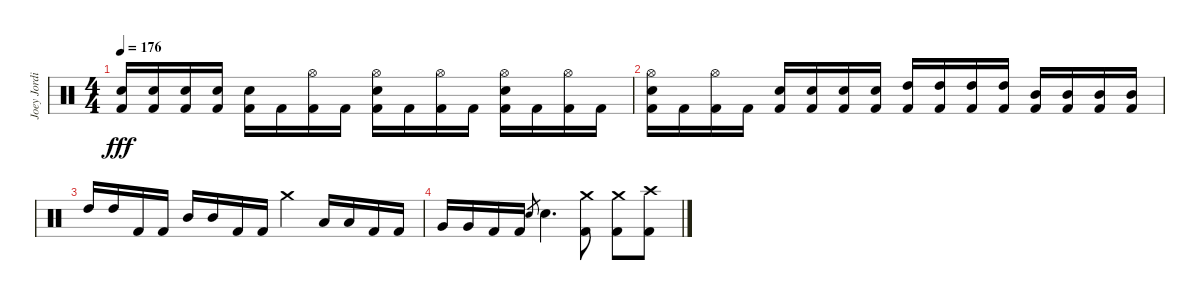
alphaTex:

\track ("Joey Jordison" "Joey Jordi") {instrument percussion}
\staff {score}
\articulation defaults
\ts (4 4)
\tempo 176
\clef neutral
\ks c
("Electric Snare (hit)" "Kick (hit) 2").16{dy fff} ("Electric Snare (hit)" "Kick (hit) 2").16 ("Electric Snare (hit)" "Kick (hit) 2").16 ("Electric Snare (hit)" "Kick (hit) 2").16 ("Electric Snare (hit)" "Kick (hit) 2").16 "Kick (hit) 2".16 ("Hi-Hat (open)" "Kick (hit) 2").16 "Kick (hit) 2".16 ("Hi-Hat (open)" "Electric Snare (hit)" "Kick (hit) 2").16 "Kick (hit) 2".16 ("Hi-Hat (open)" "Kick (hit) 2").16 "Kick (hit) 2".16 ("Hi-Hat (open)" "Electric Snare (hit)" "Kick (hit) 2").16 "Kick (hit) 2".16 ("Hi-Hat (open)" "Kick (hit) 2").16 "Kick (hit) 2".16 |
("Hi-Hat (open)" "Electric Snare (hit)" "Kick (hit) 2").16 "Kick (hit) 2".16 ("Hi-Hat (open)" "Kick (hit) 2").16 "Kick (hit) 2".16 ("Electric Snare (hit)" "Kick (hit) 2").16 ("Electric Snare (hit)" "Kick (hit) 2").16 ("Electric Snare (hit)" "Kick (hit) 2").16 ("Electric Snare (hit)" "Kick (hit) 2").16 ("High Tom (hit)" "Kick (hit) 2").16 ("High Tom (hit)" "Kick (hit) 2").16 ("High Tom (hit)" "Kick (hit) 2").16 ("High Tom (hit)" "Kick (hit) 2").16 ("Mid Tom (hit)" "Kick (hit) 2").16 ("Mid Tom (hit)" "Kick (hit) 2").16 ("Mid Tom (hit)" "Kick (hit) 2").16 ("Mid Tom (hit)" "Kick (hit) 2").16 |
"High Tom (hit)".16 "High Tom (hit)".16 "Kick (hit) 2".16 "Kick (hit) 2".16 "Mid Tom (hit)".16 "Mid Tom (hit)".16 "Kick (hit) 2".16 "Kick (hit) 2".16 "Crash medium (hit)".4 "Low Tom (hit)".16 "Low Tom (hit)".16 "Kick (hit) 2".16 "Kick (hit) 2".16 |
"Very Low Tom (hit)".16 "Very Low Tom (hit)".16 "Kick (hit) 2".16 "Kick (hit) 2".16 "Electric Snare (hit)".8{gr} "Electric Snare (hit)".4{d} ("Crash medium (hit)" "Kick (hit) 2").8 ("Crash medium (hit)" "Kick (hit) 2").8 ("Crash high (hit)" "Kick (hit) 2").8
